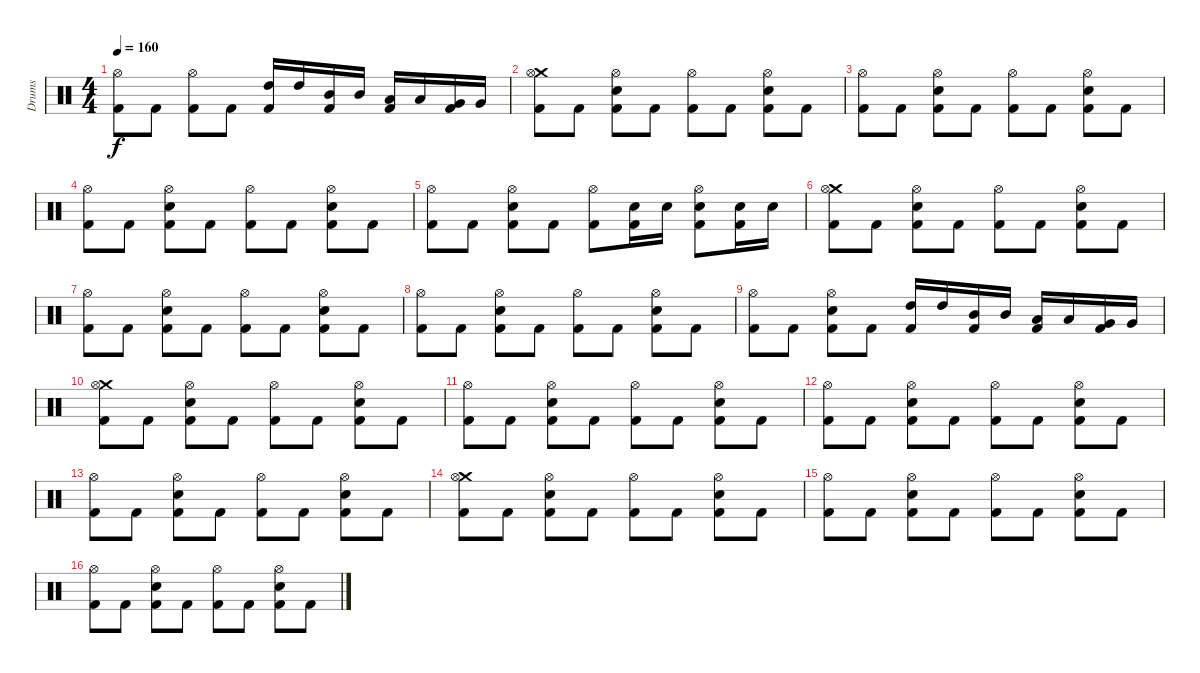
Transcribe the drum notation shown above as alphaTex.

\track ("Drums" "Drums") {instrument percussion}
\staff {score}
\articulation defaults
\ts (4 4)
\tempo 160
\clef neutral
\ks c
("Hi-Hat (open)" "Kick (hit) 2").8{dy f} "Kick (hit) 2".8 ("Hi-Hat (open)" "Kick (hit) 2").8 "Kick (hit) 2".8 ("Kick (hit) 2" "High Tom (hit)").16 "High Tom (hit)".16 ("Kick (hit) 2" "Mid Tom (hit)").16 "Mid Tom (hit)".16 ("Kick (hit) 2" "Low Tom (hit)").16 "Low Tom (hit)".16 ("Kick (hit) 2" "Very Low Tom (hit)").16 "Very Low Tom (hit)".16 |
("Crash medium (hit)" "Hi-Hat (open)" "Kick (hit) 2").8 "Kick (hit) 2".8 ("Hi-Hat (open)" "Kick (hit) 2" "Snare (hit) 2").8 "Kick (hit) 2".8 ("Hi-Hat (open)" "Kick (hit) 2").8 "Kick (hit) 2".8 ("Hi-Hat (open)" "Kick (hit) 2" "Snare (hit) 2").8 "Kick (hit) 2".8 |
("Hi-Hat (open)" "Kick (hit) 2").8 "Kick (hit) 2".8 ("Hi-Hat (open)" "Kick (hit) 2" "Snare (hit) 2").8 "Kick (hit) 2".8 ("Hi-Hat (open)" "Kick (hit) 2").8 "Kick (hit) 2".8 ("Hi-Hat (open)" "Kick (hit) 2" "Snare (hit) 2").8 "Kick (hit) 2".8 |
("Hi-Hat (open)" "Kick (hit) 2").8 "Kick (hit) 2".8 ("Hi-Hat (open)" "Kick (hit) 2" "Snare (hit) 2").8 "Kick (hit) 2".8 ("Hi-Hat (open)" "Kick (hit) 2").8 "Kick (hit) 2".8 ("Hi-Hat (open)" "Kick (hit) 2" "Snare (hit) 2").8 "Kick (hit) 2".8 |
("Hi-Hat (open)" "Kick (hit) 2").8 "Kick (hit) 2".8 ("Hi-Hat (open)" "Kick (hit) 2" "Snare (hit) 2").8 "Kick (hit) 2".8 ("Hi-Hat (open)" "Kick (hit) 2").8 ("Kick (hit) 2" "Snare (hit) 2").16 "Snare (hit) 2".16 ("Hi-Hat (open)" "Kick (hit) 2" "Snare (hit) 2").8 ("Kick (hit) 2" "Snare (hit) 2").16 "Snare (hit) 2".16 |
("Crash medium (hit)" "Hi-Hat (open)" "Kick (hit) 2").8 "Kick (hit) 2".8 ("Hi-Hat (open)" "Kick (hit) 2" "Snare (hit) 2").8 "Kick (hit) 2".8 ("Hi-Hat (open)" "Kick (hit) 2").8 "Kick (hit) 2".8 ("Hi-Hat (open)" "Kick (hit) 2" "Snare (hit) 2").8 "Kick (hit) 2".8 |
("Hi-Hat (open)" "Kick (hit) 2").8 "Kick (hit) 2".8 ("Hi-Hat (open)" "Kick (hit) 2" "Snare (hit) 2").8 "Kick (hit) 2".8 ("Hi-Hat (open)" "Kick (hit) 2").8 "Kick (hit) 2".8 ("Hi-Hat (open)" "Kick (hit) 2" "Snare (hit) 2").8 "Kick (hit) 2".8 |
("Hi-Hat (open)" "Kick (hit) 2").8 "Kick (hit) 2".8 ("Hi-Hat (open)" "Kick (hit) 2" "Snare (hit) 2").8 "Kick (hit) 2".8 ("Hi-Hat (open)" "Kick (hit) 2").8 "Kick (hit) 2".8 ("Hi-Hat (open)" "Kick (hit) 2" "Snare (hit) 2").8 "Kick (hit) 2".8 |
("Hi-Hat (open)" "Kick (hit) 2").8 "Kick (hit) 2".8 ("Hi-Hat (open)" "Kick (hit) 2" "Snare (hit) 2").8 "Kick (hit) 2".8 ("Kick (hit) 2" "High Tom (hit)").16 "High Tom (hit)".16 ("Kick (hit) 2" "Mid Tom (hit)").16 "Mid Tom (hit)".16 ("Kick (hit) 2" "Low Tom (hit)").16 "Low Tom (hit)".16 ("Kick (hit) 2" "Very Low Tom (hit)").16 "Very Low Tom (hit)".16 |
("Crash medium (hit)" "Hi-Hat (open)" "Kick (hit) 2").8 "Kick (hit) 2".8 ("Hi-Hat (open)" "Kick (hit) 2" "Snare (hit) 2").8 "Kick (hit) 2".8 ("Hi-Hat (open)" "Kick (hit) 2").8 "Kick (hit) 2".8 ("Hi-Hat (open)" "Kick (hit) 2" "Snare (hit) 2").8 "Kick (hit) 2".8 |
("Hi-Hat (open)" "Kick (hit) 2").8 "Kick (hit) 2".8 ("Hi-Hat (open)" "Kick (hit) 2" "Snare (hit) 2").8 "Kick (hit) 2".8 ("Hi-Hat (open)" "Kick (hit) 2").8 "Kick (hit) 2".8 ("Hi-Hat (open)" "Kick (hit) 2" "Snare (hit) 2").8 "Kick (hit) 2".8 |
("Hi-Hat (open)" "Kick (hit) 2").8 "Kick (hit) 2".8 ("Hi-Hat (open)" "Kick (hit) 2" "Snare (hit) 2").8 "Kick (hit) 2".8 ("Hi-Hat (open)" "Kick (hit) 2").8 "Kick (hit) 2".8 ("Hi-Hat (open)" "Kick (hit) 2" "Snare (hit) 2").8 "Kick (hit) 2".8 |
("Hi-Hat (open)" "Kick (hit) 2").8 "Kick (hit) 2".8 ("Hi-Hat (open)" "Kick (hit) 2" "Snare (hit) 2").8 "Kick (hit) 2".8 ("Hi-Hat (open)" "Kick (hit) 2").8 "Kick (hit) 2".8 ("Hi-Hat (open)" "Kick (hit) 2" "Snare (hit) 2").8 "Kick (hit) 2".8 |
("Crash medium (hit)" "Hi-Hat (open)" "Kick (hit) 2").8 "Kick (hit) 2".8 ("Hi-Hat (open)" "Kick (hit) 2" "Snare (hit) 2").8 "Kick (hit) 2".8 ("Hi-Hat (open)" "Kick (hit) 2").8 "Kick (hit) 2".8 ("Hi-Hat (open)" "Kick (hit) 2" "Snare (hit) 2").8 "Kick (hit) 2".8 |
("Hi-Hat (open)" "Kick (hit) 2").8 "Kick (hit) 2".8 ("Hi-Hat (open)" "Kick (hit) 2" "Snare (hit) 2").8 "Kick (hit) 2".8 ("Hi-Hat (open)" "Kick (hit) 2").8 "Kick (hit) 2".8 ("Hi-Hat (open)" "Kick (hit) 2" "Snare (hit) 2").8 "Kick (hit) 2".8 |
("Hi-Hat (open)" "Kick (hit) 2").8 "Kick (hit) 2".8 ("Hi-Hat (open)" "Kick (hit) 2" "Snare (hit) 2").8 "Kick (hit) 2".8 ("Hi-Hat (open)" "Kick (hit) 2").8 "Kick (hit) 2".8 ("Hi-Hat (open)" "Kick (hit) 2" "Snare (hit) 2").8 "Kick (hit) 2".8
